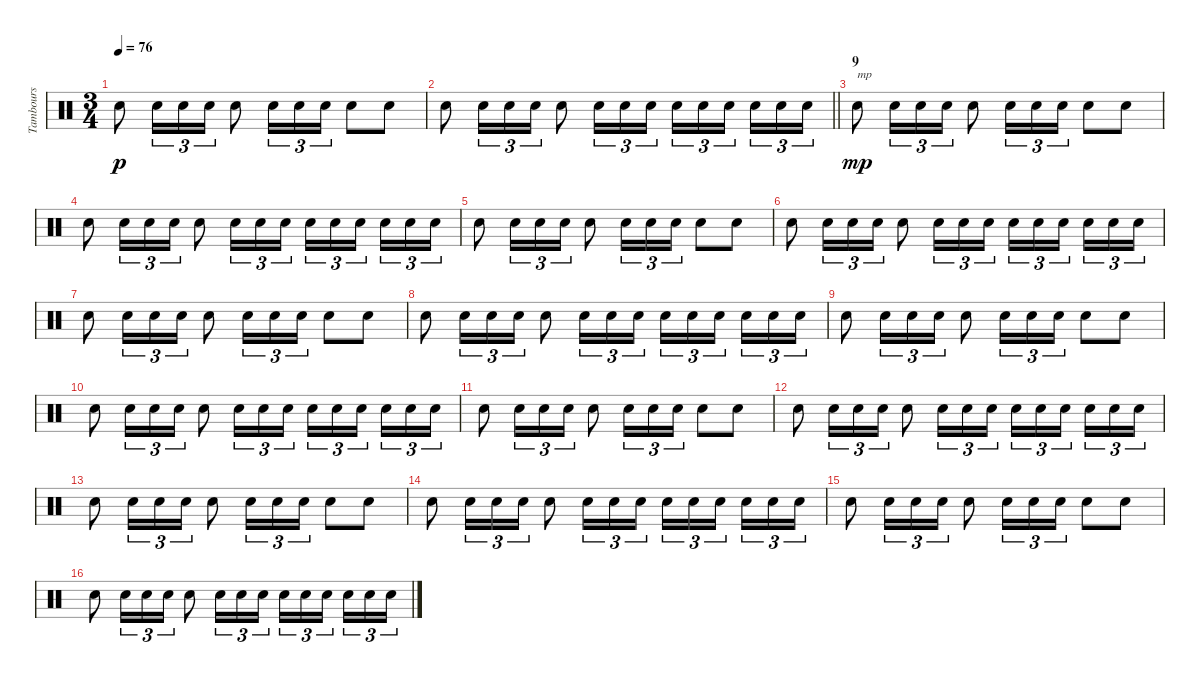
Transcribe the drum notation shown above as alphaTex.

\track ("Tambours" "Tambours") {instrument percussion}
\staff {score}
\articulation defaults
\ts (3 4)
\tempo 76
\clef neutral
\ks c "Snare (hit) 2".8{dy p} "Snare (hit) 2".16{tu (3 2)} "Snare (hit) 2".16{tu (3 2)} "Snare (hit) 2".16{tu (3 2)} "Snare (hit) 2".8 "Snare (hit) 2".16{tu (3 2)} "Snare (hit) 2".16{tu (3 2)} "Snare (hit) 2".16{tu (3 2)} "Snare (hit) 2".8 "Snare (hit) 2".8
|
\barLineRight lightlight "Snare (hit) 2".8 "Snare (hit) 2".16{tu (3 2)} "Snare (hit) 2".16{tu (3 2)} "Snare (hit) 2".16{tu (3 2)} "Snare (hit) 2".8 "Snare (hit) 2".16{tu (3 2)} "Snare (hit) 2".16{tu (3 2)} "Snare (hit) 2".16{tu (3 2)} "Snare (hit) 2".16{tu (3 2)} "Snare (hit) 2".16{tu (3 2)} "Snare (hit) 2".16{tu (3 2) beam splitsecondary} "Snare (hit) 2".16{tu (3 2)} "Snare (hit) 2".16{tu (3 2)} "Snare (hit) 2".16{tu (3 2)}
|
\section ("" "9")
"Snare (hit) 2".8{txt "mp" dy mp} "Snare (hit) 2".16{tu (3 2)} "Snare (hit) 2".16{tu (3 2)} "Snare (hit) 2".16{tu (3 2)} "Snare (hit) 2".8 "Snare (hit) 2".16{tu (3 2)} "Snare (hit) 2".16{tu (3 2)} "Snare (hit) 2".16{tu (3 2)} "Snare (hit) 2".8 "Snare (hit) 2".8 |
"Snare (hit) 2".8 "Snare (hit) 2".16{tu (3 2)} "Snare (hit) 2".16{tu (3 2)} "Snare (hit) 2".16{tu (3 2)} "Snare (hit) 2".8 "Snare (hit) 2".16{tu (3 2)} "Snare (hit) 2".16{tu (3 2)} "Snare (hit) 2".16{tu (3 2)} "Snare (hit) 2".16{tu (3 2)} "Snare (hit) 2".16{tu (3 2)} "Snare (hit) 2".16{tu (3 2) beam splitsecondary} "Snare (hit) 2".16{tu (3 2)} "Snare (hit) 2".16{tu (3 2)} "Snare (hit) 2".16{tu (3 2)} |
"Snare (hit) 2".8 "Snare (hit) 2".16{tu (3 2)} "Snare (hit) 2".16{tu (3 2)} "Snare (hit) 2".16{tu (3 2)} "Snare (hit) 2".8 "Snare (hit) 2".16{tu (3 2)} "Snare (hit) 2".16{tu (3 2)} "Snare (hit) 2".16{tu (3 2)} "Snare (hit) 2".8 "Snare (hit) 2".8 |
"Snare (hit) 2".8 "Snare (hit) 2".16{tu (3 2)} "Snare (hit) 2".16{tu (3 2)} "Snare (hit) 2".16{tu (3 2)} "Snare (hit) 2".8 "Snare (hit) 2".16{tu (3 2)} "Snare (hit) 2".16{tu (3 2)} "Snare (hit) 2".16{tu (3 2)} "Snare (hit) 2".16{tu (3 2)} "Snare (hit) 2".16{tu (3 2)} "Snare (hit) 2".16{tu (3 2) beam splitsecondary} "Snare (hit) 2".16{tu (3 2)} "Snare (hit) 2".16{tu (3 2)} "Snare (hit) 2".16{tu (3 2)} |
"Snare (hit) 2".8 "Snare (hit) 2".16{tu (3 2)} "Snare (hit) 2".16{tu (3 2)} "Snare (hit) 2".16{tu (3 2)} "Snare (hit) 2".8 "Snare (hit) 2".16{tu (3 2)} "Snare (hit) 2".16{tu (3 2)} "Snare (hit) 2".16{tu (3 2)} "Snare (hit) 2".8 "Snare (hit) 2".8 |
"Snare (hit) 2".8 "Snare (hit) 2".16{tu (3 2)} "Snare (hit) 2".16{tu (3 2)} "Snare (hit) 2".16{tu (3 2)} "Snare (hit) 2".8 "Snare (hit) 2".16{tu (3 2)} "Snare (hit) 2".16{tu (3 2)} "Snare (hit) 2".16{tu (3 2)} "Snare (hit) 2".16{tu (3 2)} "Snare (hit) 2".16{tu (3 2)} "Snare (hit) 2".16{tu (3 2) beam splitsecondary} "Snare (hit) 2".16{tu (3 2)} "Snare (hit) 2".16{tu (3 2)} "Snare (hit) 2".16{tu (3 2)} |
"Snare (hit) 2".8 "Snare (hit) 2".16{tu (3 2)} "Snare (hit) 2".16{tu (3 2)} "Snare (hit) 2".16{tu (3 2)} "Snare (hit) 2".8 "Snare (hit) 2".16{tu (3 2)} "Snare (hit) 2".16{tu (3 2)} "Snare (hit) 2".16{tu (3 2)} "Snare (hit) 2".8 "Snare (hit) 2".8 |
"Snare (hit) 2".8 "Snare (hit) 2".16{tu (3 2)} "Snare (hit) 2".16{tu (3 2)} "Snare (hit) 2".16{tu (3 2)} "Snare (hit) 2".8 "Snare (hit) 2".16{tu (3 2)} "Snare (hit) 2".16{tu (3 2)} "Snare (hit) 2".16{tu (3 2)} "Snare (hit) 2".16{tu (3 2)} "Snare (hit) 2".16{tu (3 2)} "Snare (hit) 2".16{tu (3 2) beam splitsecondary} "Snare (hit) 2".16{tu (3 2)} "Snare (hit) 2".16{tu (3 2)} "Snare (hit) 2".16{tu (3 2)} |
"Snare (hit) 2".8 "Snare (hit) 2".16{tu (3 2)} "Snare (hit) 2".16{tu (3 2)} "Snare (hit) 2".16{tu (3 2)} "Snare (hit) 2".8 "Snare (hit) 2".16{tu (3 2)} "Snare (hit) 2".16{tu (3 2)} "Snare (hit) 2".16{tu (3 2)} "Snare (hit) 2".8 "Snare (hit) 2".8 |
"Snare (hit) 2".8 "Snare (hit) 2".16{tu (3 2)} "Snare (hit) 2".16{tu (3 2)} "Snare (hit) 2".16{tu (3 2)} "Snare (hit) 2".8 "Snare (hit) 2".16{tu (3 2)} "Snare (hit) 2".16{tu (3 2)} "Snare (hit) 2".16{tu (3 2)} "Snare (hit) 2".16{tu (3 2)} "Snare (hit) 2".16{tu (3 2)} "Snare (hit) 2".16{tu (3 2) beam splitsecondary} "Snare (hit) 2".16{tu (3 2)} "Snare (hit) 2".16{tu (3 2)} "Snare (hit) 2".16{tu (3 2)} |
"Snare (hit) 2".8 "Snare (hit) 2".16{tu (3 2)} "Snare (hit) 2".16{tu (3 2)} "Snare (hit) 2".16{tu (3 2)} "Snare (hit) 2".8 "Snare (hit) 2".16{tu (3 2)} "Snare (hit) 2".16{tu (3 2)} "Snare (hit) 2".16{tu (3 2)} "Snare (hit) 2".8 "Snare (hit) 2".8 |
"Snare (hit) 2".8 "Snare (hit) 2".16{tu (3 2)} "Snare (hit) 2".16{tu (3 2)} "Snare (hit) 2".16{tu (3 2)} "Snare (hit) 2".8 "Snare (hit) 2".16{tu (3 2)} "Snare (hit) 2".16{tu (3 2)} "Snare (hit) 2".16{tu (3 2)} "Snare (hit) 2".16{tu (3 2)} "Snare (hit) 2".16{tu (3 2)} "Snare (hit) 2".16{tu (3 2) beam splitsecondary} "Snare (hit) 2".16{tu (3 2)} "Snare (hit) 2".16{tu (3 2)} "Snare (hit) 2".16{tu (3 2)} |
"Snare (hit) 2".8 "Snare (hit) 2".16{tu (3 2)} "Snare (hit) 2".16{tu (3 2)} "Snare (hit) 2".16{tu (3 2)} "Snare (hit) 2".8 "Snare (hit) 2".16{tu (3 2)} "Snare (hit) 2".16{tu (3 2)} "Snare (hit) 2".16{tu (3 2)} "Snare (hit) 2".8 "Snare (hit) 2".8 |
"Snare (hit) 2".8 "Snare (hit) 2".16{tu (3 2)} "Snare (hit) 2".16{tu (3 2)} "Snare (hit) 2".16{tu (3 2)} "Snare (hit) 2".8 "Snare (hit) 2".16{tu (3 2)} "Snare (hit) 2".16{tu (3 2)} "Snare (hit) 2".16{tu (3 2)} "Snare (hit) 2".16{tu (3 2)} "Snare (hit) 2".16{tu (3 2)} "Snare (hit) 2".16{tu (3 2) beam splitsecondary} "Snare (hit) 2".16{tu (3 2)} "Snare (hit) 2".16{tu (3 2)} "Snare (hit) 2".16{tu (3 2)}
